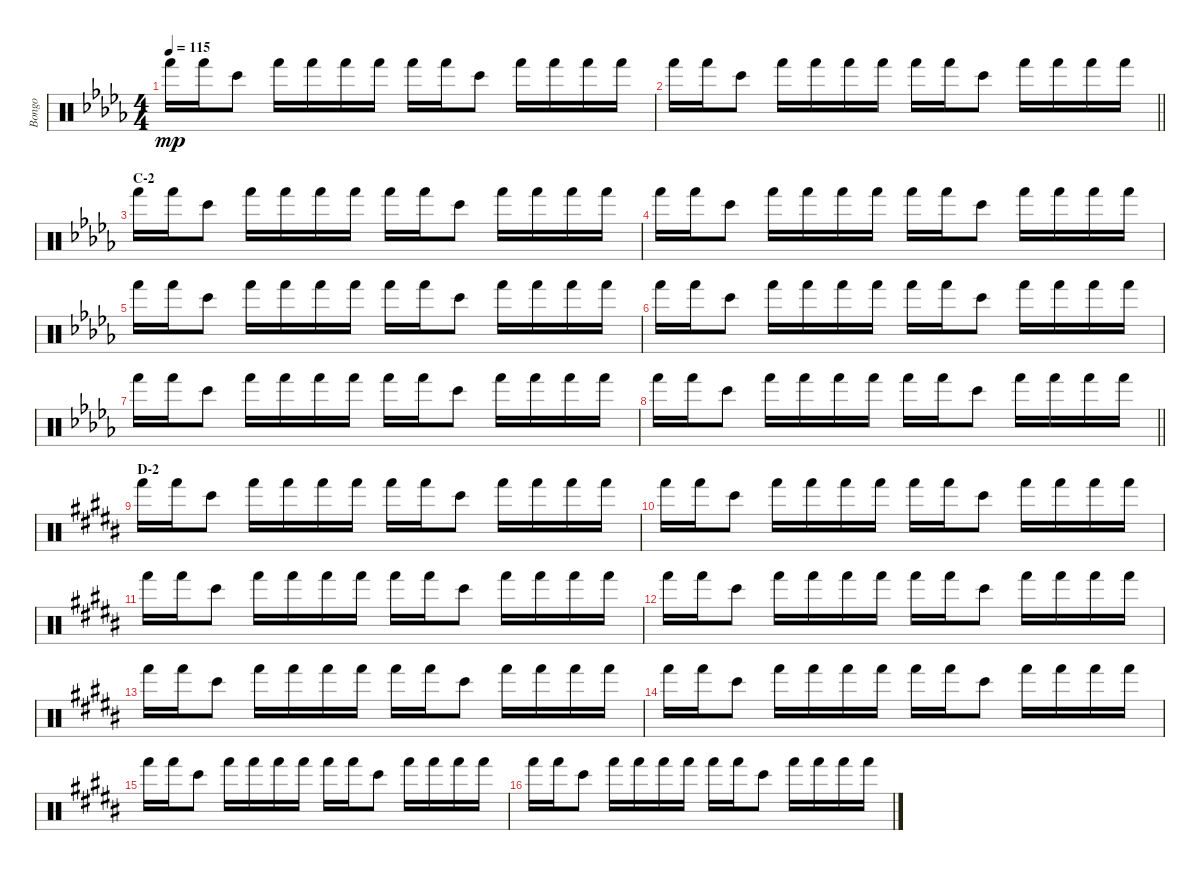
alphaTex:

\track ("Bongo" "Bongo") {instrument percussion}
\staff {score}
\articulation defaults
\ts (4 4)
\tempo 115
\clef neutral
\ks db "Hand (hit)".16{dy mp} "Hand (hit)".16 "Bongo High (hit)".8 "Hand (hit)".16 "Hand (hit)".16 "Hand (hit)".16 "Hand (hit)".16 "Hand (hit)".16 "Hand (hit)".16 "Bongo High (hit)".8 "Hand (hit)".16 "Hand (hit)".16 "Hand (hit)".16 "Hand (hit)".16
|
\barLineRight lightlight "Hand (hit)".16 "Hand (hit)".16 "Bongo High (hit)".8 "Hand (hit)".16 "Hand (hit)".16 "Hand (hit)".16 "Hand (hit)".16 "Hand (hit)".16 "Hand (hit)".16 "Bongo High (hit)".8 "Hand (hit)".16 "Hand (hit)".16 "Hand (hit)".16 "Hand (hit)".16
|
\section ("" "C-2")
"Hand (hit)".16 "Hand (hit)".16 "Bongo High (hit)".8 "Hand (hit)".16 "Hand (hit)".16 "Hand (hit)".16 "Hand (hit)".16 "Hand (hit)".16 "Hand (hit)".16 "Bongo High (hit)".8 "Hand (hit)".16 "Hand (hit)".16 "Hand (hit)".16 "Hand (hit)".16 |
"Hand (hit)".16 "Hand (hit)".16 "Bongo High (hit)".8 "Hand (hit)".16 "Hand (hit)".16 "Hand (hit)".16 "Hand (hit)".16 "Hand (hit)".16 "Hand (hit)".16 "Bongo High (hit)".8 "Hand (hit)".16 "Hand (hit)".16 "Hand (hit)".16 "Hand (hit)".16 |
"Hand (hit)".16 "Hand (hit)".16 "Bongo High (hit)".8 "Hand (hit)".16 "Hand (hit)".16 "Hand (hit)".16 "Hand (hit)".16 "Hand (hit)".16 "Hand (hit)".16 "Bongo High (hit)".8 "Hand (hit)".16 "Hand (hit)".16 "Hand (hit)".16 "Hand (hit)".16 |
"Hand (hit)".16 "Hand (hit)".16 "Bongo High (hit)".8 "Hand (hit)".16 "Hand (hit)".16 "Hand (hit)".16 "Hand (hit)".16 "Hand (hit)".16 "Hand (hit)".16 "Bongo High (hit)".8 "Hand (hit)".16 "Hand (hit)".16 "Hand (hit)".16 "Hand (hit)".16 |
"Hand (hit)".16 "Hand (hit)".16 "Bongo High (hit)".8 "Hand (hit)".16 "Hand (hit)".16 "Hand (hit)".16 "Hand (hit)".16 "Hand (hit)".16 "Hand (hit)".16 "Bongo High (hit)".8 "Hand (hit)".16 "Hand (hit)".16 "Hand (hit)".16 "Hand (hit)".16 |
\barLineRight lightlight "Hand (hit)".16 "Hand (hit)".16 "Bongo High (hit)".8 "Hand (hit)".16 "Hand (hit)".16 "Hand (hit)".16 "Hand (hit)".16 "Hand (hit)".16 "Hand (hit)".16 "Bongo High (hit)".8 "Hand (hit)".16 "Hand (hit)".16 "Hand (hit)".16 "Hand (hit)".16
|
\section ("" "D-2")
\ks b "Hand (hit)".16 "Hand (hit)".16 "Bongo High (hit)".8 "Hand (hit)".16 "Hand (hit)".16 "Hand (hit)".16 "Hand (hit)".16 "Hand (hit)".16 "Hand (hit)".16 "Bongo High (hit)".8 "Hand (hit)".16 "Hand (hit)".16 "Hand (hit)".16 "Hand (hit)".16
|
"Hand (hit)".16 "Hand (hit)".16 "Bongo High (hit)".8 "Hand (hit)".16 "Hand (hit)".16 "Hand (hit)".16 "Hand (hit)".16 "Hand (hit)".16 "Hand (hit)".16 "Bongo High (hit)".8 "Hand (hit)".16 "Hand (hit)".16 "Hand (hit)".16 "Hand (hit)".16 |
"Hand (hit)".16 "Hand (hit)".16 "Bongo High (hit)".8 "Hand (hit)".16 "Hand (hit)".16 "Hand (hit)".16 "Hand (hit)".16 "Hand (hit)".16 "Hand (hit)".16 "Bongo High (hit)".8 "Hand (hit)".16 "Hand (hit)".16 "Hand (hit)".16 "Hand (hit)".16 |
"Hand (hit)".16 "Hand (hit)".16 "Bongo High (hit)".8 "Hand (hit)".16 "Hand (hit)".16 "Hand (hit)".16 "Hand (hit)".16 "Hand (hit)".16 "Hand (hit)".16 "Bongo High (hit)".8 "Hand (hit)".16 "Hand (hit)".16 "Hand (hit)".16 "Hand (hit)".16 |
"Hand (hit)".16 "Hand (hit)".16 "Bongo High (hit)".8 "Hand (hit)".16 "Hand (hit)".16 "Hand (hit)".16 "Hand (hit)".16 "Hand (hit)".16 "Hand (hit)".16 "Bongo High (hit)".8 "Hand (hit)".16 "Hand (hit)".16 "Hand (hit)".16 "Hand (hit)".16 |
"Hand (hit)".16 "Hand (hit)".16 "Bongo High (hit)".8 "Hand (hit)".16 "Hand (hit)".16 "Hand (hit)".16 "Hand (hit)".16 "Hand (hit)".16 "Hand (hit)".16 "Bongo High (hit)".8 "Hand (hit)".16 "Hand (hit)".16 "Hand (hit)".16 "Hand (hit)".16 |
"Hand (hit)".16 "Hand (hit)".16 "Bongo High (hit)".8 "Hand (hit)".16 "Hand (hit)".16 "Hand (hit)".16 "Hand (hit)".16 "Hand (hit)".16 "Hand (hit)".16 "Bongo High (hit)".8 "Hand (hit)".16 "Hand (hit)".16 "Hand (hit)".16 "Hand (hit)".16 |
"Hand (hit)".16 "Hand (hit)".16 "Bongo High (hit)".8 "Hand (hit)".16 "Hand (hit)".16 "Hand (hit)".16 "Hand (hit)".16 "Hand (hit)".16 "Hand (hit)".16 "Bongo High (hit)".8 "Hand (hit)".16 "Hand (hit)".16 "Hand (hit)".16 "Hand (hit)".16
